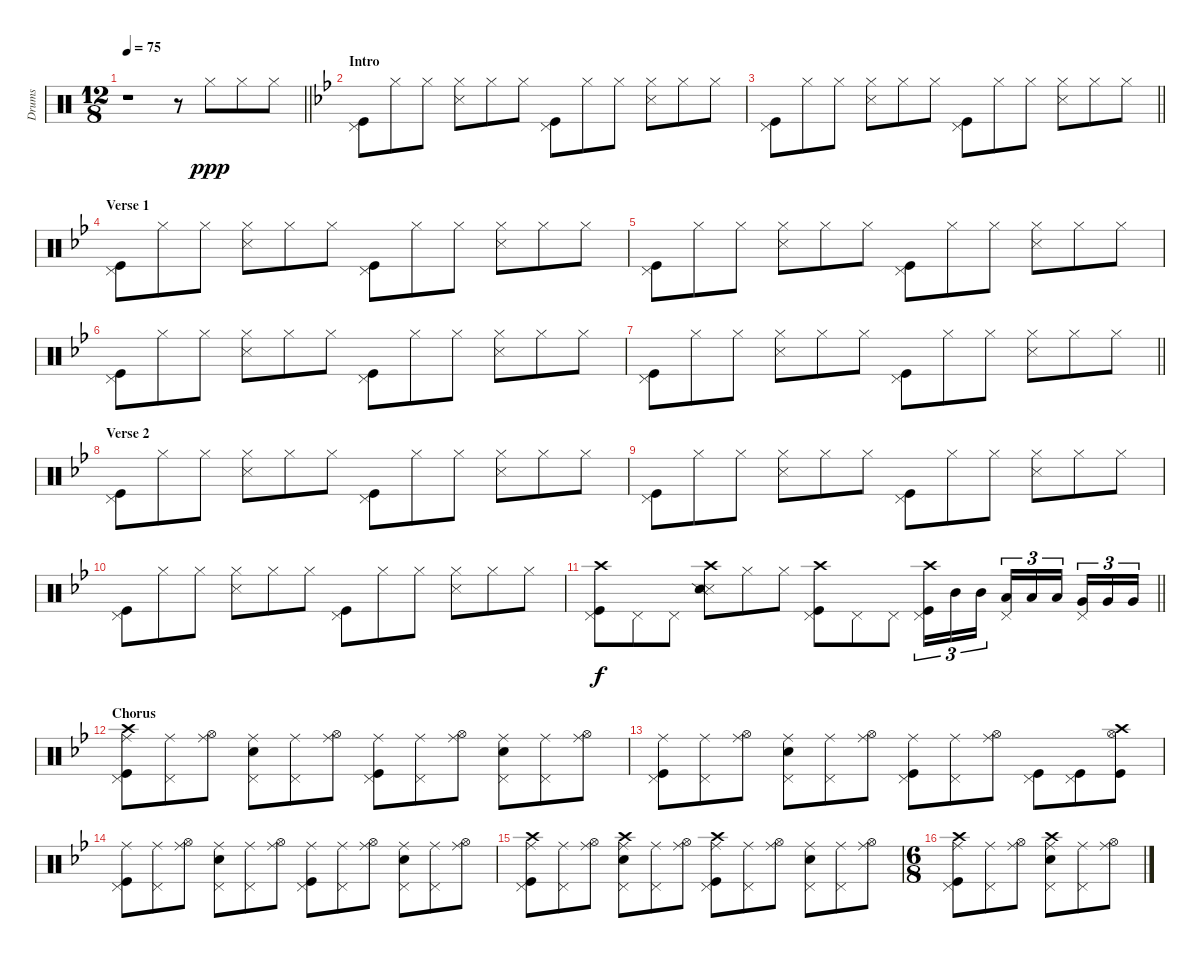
\track ("Drums" "Drums") {instrument percussion}
\staff {score}
\articulation defaults
\ts (12 8)
\tempo 75
\clef neutral
\barLineRight lightlight
\ks c
r.1{dy ppp} r.8 "Hi-Hat (closed)".8 "Hi-Hat (closed)".8 "Hi-Hat (closed)".8 |
\section ("" "Intro")
\ks bb
("Pedal Hi-Hat (hit)" "Kick (hit)").8 "Hi-Hat (closed)".8 "Hi-Hat (closed)".8 ("Hi-Hat (closed)" "Snare (side stick) 3").8 "Hi-Hat (closed)".8 "Hi-Hat (closed)".8 ("Pedal Hi-Hat (hit)" "Kick (hit)").8 "Hi-Hat (closed)".8 "Hi-Hat (closed)".8 ("Hi-Hat (closed)" "Snare (side stick) 3").8 "Hi-Hat (closed)".8 "Hi-Hat (closed)".8 |
\barLineRight lightlight
("Pedal Hi-Hat (hit)" "Kick (hit)").8 "Hi-Hat (closed)".8 "Hi-Hat (closed)".8 ("Hi-Hat (closed)" "Snare (side stick) 3").8 "Hi-Hat (closed)".8 "Hi-Hat (closed)".8 ("Pedal Hi-Hat (hit)" "Kick (hit)").8 "Hi-Hat (closed)".8 "Hi-Hat (closed)".8 ("Hi-Hat (closed)" "Snare (side stick) 3").8 "Hi-Hat (closed)".8 "Hi-Hat (closed)".8 |
\section ("" "Verse 1")
("Pedal Hi-Hat (hit)" "Kick (hit)").8 "Hi-Hat (closed)".8 "Hi-Hat (closed)".8 ("Hi-Hat (closed)" "Snare (side stick) 3").8 "Hi-Hat (closed)".8 "Hi-Hat (closed)".8 ("Pedal Hi-Hat (hit)" "Kick (hit)").8 "Hi-Hat (closed)".8 "Hi-Hat (closed)".8 ("Hi-Hat (closed)" "Snare (side stick) 3").8 "Hi-Hat (closed)".8 "Hi-Hat (closed)".8 |
("Pedal Hi-Hat (hit)" "Kick (hit)").8 "Hi-Hat (closed)".8 "Hi-Hat (closed)".8 ("Hi-Hat (closed)" "Snare (side stick) 3").8 "Hi-Hat (closed)".8 "Hi-Hat (closed)".8 ("Pedal Hi-Hat (hit)" "Kick (hit)").8 "Hi-Hat (closed)".8 "Hi-Hat (closed)".8 ("Hi-Hat (closed)" "Snare (side stick) 3").8 "Hi-Hat (closed)".8 "Hi-Hat (closed)".8 |
("Pedal Hi-Hat (hit)" "Kick (hit)").8 "Hi-Hat (closed)".8 "Hi-Hat (closed)".8 ("Hi-Hat (closed)" "Snare (side stick) 3").8 "Hi-Hat (closed)".8 "Hi-Hat (closed)".8 ("Pedal Hi-Hat (hit)" "Kick (hit)").8 "Hi-Hat (closed)".8 "Hi-Hat (closed)".8 ("Hi-Hat (closed)" "Snare (side stick) 3").8 "Hi-Hat (closed)".8 "Hi-Hat (closed)".8 |
\barLineRight lightlight
("Pedal Hi-Hat (hit)" "Kick (hit)").8 "Hi-Hat (closed)".8 "Hi-Hat (closed)".8 ("Hi-Hat (closed)" "Snare (side stick) 3").8 "Hi-Hat (closed)".8 "Hi-Hat (closed)".8 ("Pedal Hi-Hat (hit)" "Kick (hit)").8 "Hi-Hat (closed)".8 "Hi-Hat (closed)".8 ("Hi-Hat (closed)" "Snare (side stick) 3").8 "Hi-Hat (closed)".8 "Hi-Hat (closed)".8 |
\section ("" "Verse 2")
("Pedal Hi-Hat (hit)" "Kick (hit)").8 "Hi-Hat (closed)".8 "Hi-Hat (closed)".8 ("Hi-Hat (closed)" "Snare (side stick) 3").8 "Hi-Hat (closed)".8 "Hi-Hat (closed)".8 ("Pedal Hi-Hat (hit)" "Kick (hit)").8 "Hi-Hat (closed)".8 "Hi-Hat (closed)".8 ("Hi-Hat (closed)" "Snare (side stick) 3").8 "Hi-Hat (closed)".8 "Hi-Hat (closed)".8 |
("Pedal Hi-Hat (hit)" "Kick (hit)").8 "Hi-Hat (closed)".8 "Hi-Hat (closed)".8 ("Hi-Hat (closed)" "Snare (side stick) 3").8 "Hi-Hat (closed)".8 "Hi-Hat (closed)".8 ("Pedal Hi-Hat (hit)" "Kick (hit)").8 "Hi-Hat (closed)".8 "Hi-Hat (closed)".8 ("Hi-Hat (closed)" "Snare (side stick) 3").8 "Hi-Hat (closed)".8 "Hi-Hat (closed)".8 |
("Pedal Hi-Hat (hit)" "Kick (hit)").8 "Hi-Hat (closed)".8 "Hi-Hat (closed)".8 ("Hi-Hat (closed)" "Snare (side stick) 3").8 "Hi-Hat (closed)".8 "Hi-Hat (closed)".8 ("Pedal Hi-Hat (hit)" "Kick (hit)").8 "Hi-Hat (closed)".8 "Hi-Hat (closed)".8 ("Hi-Hat (closed)" "Snare (side stick) 3").8 "Hi-Hat (closed)".8 "Hi-Hat (closed)".8 |
\barLineRight lightlight
("Crash high (hit)" "Pedal Hi-Hat (hit)" "Kick (hit)").8{dy f volume 12} "Pedal Hi-Hat (hit)".8 "Pedal Hi-Hat (hit)".8 ("Crash high (hit)" "Snare (side stick) 3" "Snare (side stick) 2").8 "Hi-Hat (closed)".8 "Hi-Hat (closed)".8 ("Crash high (hit)" "Pedal Hi-Hat (hit)" "Kick (hit)").8 "Pedal Hi-Hat (hit)".8 "Pedal Hi-Hat (hit)".8 ("Crash high (hit)" "Pedal Hi-Hat (hit)" "Kick (hit)").16{tu (3 2)} "Mid Tom (hit)".16{tu (3 2)} "Mid Tom (hit)".16{tu (3 2) beam splitsecondary} ("Pedal Hi-Hat (hit)" "Low Tom (hit)").16{tu (3 2)} "Low Tom (hit)".16{tu (3 2)} "Low Tom (hit)".16{tu (3 2) beam splitsecondary} ("Pedal Hi-Hat (hit)" "Very Low Tom (hit)").16{tu (3 2)} "Very Low Tom (hit)".16{tu (3 2)} "Very Low Tom (hit)".16{tu (3 2)} |
\section ("" "Chorus")
("Crash high (hit)" "Ride (middle)" "Pedal Hi-Hat (hit)" "Kick (hit)").8 ("Ride (middle)" "Pedal Hi-Hat (hit)").8 ("Ride (middle)" "Hi-Hat (open)").8 ("Ride (middle)" "Snare (hit) 2" "Pedal Hi-Hat (hit)").8 ("Ride (middle)" "Pedal Hi-Hat (hit)").8 ("Ride (middle)" "Hi-Hat (open)").8 ("Ride (middle)" "Pedal Hi-Hat (hit)" "Kick (hit)").8 ("Ride (middle)" "Pedal Hi-Hat (hit)").8 ("Ride (middle)" "Hi-Hat (open)").8 ("Ride (middle)" "Snare (hit) 2" "Pedal Hi-Hat (hit)").8 ("Ride (middle)" "Pedal Hi-Hat (hit)").8 ("Ride (middle)" "Hi-Hat (open)").8 |
("Ride (middle)" "Pedal Hi-Hat (hit)" "Kick (hit)").8 ("Ride (middle)" "Pedal Hi-Hat (hit)").8 ("Ride (middle)" "Hi-Hat (open)").8 ("Ride (middle)" "Snare (hit) 2" "Pedal Hi-Hat (hit)").8 ("Ride (middle)" "Pedal Hi-Hat (hit)").8 ("Ride (middle)" "Hi-Hat (open)").8 ("Ride (middle)" "Pedal Hi-Hat (hit)" "Kick (hit)").8 ("Ride (middle)" "Pedal Hi-Hat (hit)").8 ("Ride (middle)" "Hi-Hat (open)").8 ("Pedal Hi-Hat (hit)" "Kick (hit)").8 ("Pedal Hi-Hat (hit)" "Kick (hit)").8 ("Crash high (hit)" "Hi-Hat (open)" "Kick (hit)").8 |
("Ride (middle)" "Pedal Hi-Hat (hit)" "Kick (hit)").8 ("Ride (middle)" "Pedal Hi-Hat (hit)").8 ("Ride (middle)" "Hi-Hat (open)").8 ("Ride (middle)" "Snare (hit) 2" "Pedal Hi-Hat (hit)").8 ("Ride (middle)" "Pedal Hi-Hat (hit)").8 ("Ride (middle)" "Hi-Hat (open)").8 ("Ride (middle)" "Pedal Hi-Hat (hit)" "Kick (hit)").8 ("Ride (middle)" "Pedal Hi-Hat (hit)").8 ("Ride (middle)" "Hi-Hat (open)").8 ("Ride (middle)" "Snare (hit) 2" "Pedal Hi-Hat (hit)").8 ("Ride (middle)" "Pedal Hi-Hat (hit)").8 ("Ride (middle)" "Hi-Hat (open)").8 |
("Crash high (hit)" "Ride (middle)" "Pedal Hi-Hat (hit)" "Kick (hit)").8 ("Ride (middle)" "Pedal Hi-Hat (hit)").8 ("Ride (middle)" "Hi-Hat (open)").8 ("Crash high (hit)" "Ride (middle)" "Pedal Hi-Hat (hit)" "Snare (hit) 2").8 ("Ride (middle)" "Pedal Hi-Hat (hit)").8 ("Ride (middle)" "Hi-Hat (open)").8 ("Crash high (hit)" "Ride (middle)" "Pedal Hi-Hat (hit)" "Kick (hit)").8 ("Ride (middle)" "Pedal Hi-Hat (hit)").8 ("Ride (middle)" "Hi-Hat (open)").8 ("Ride (middle)" "Snare (hit) 2" "Pedal Hi-Hat (hit)").8 ("Ride (middle)" "Pedal Hi-Hat (hit)").8 ("Ride (middle)" "Hi-Hat (open)").8 |
\ts (6 8)
("Crash high (hit)" "Ride (middle)" "Pedal Hi-Hat (hit)" "Kick (hit)").8 ("Ride (middle)" "Pedal Hi-Hat (hit)").8 ("Ride (middle)" "Hi-Hat (open)").8 ("Crash high (hit)" "Ride (middle)" "Pedal Hi-Hat (hit)" "Snare (hit) 2").8 ("Ride (middle)" "Pedal Hi-Hat (hit)").8 ("Ride (middle)" "Hi-Hat (open)").8
